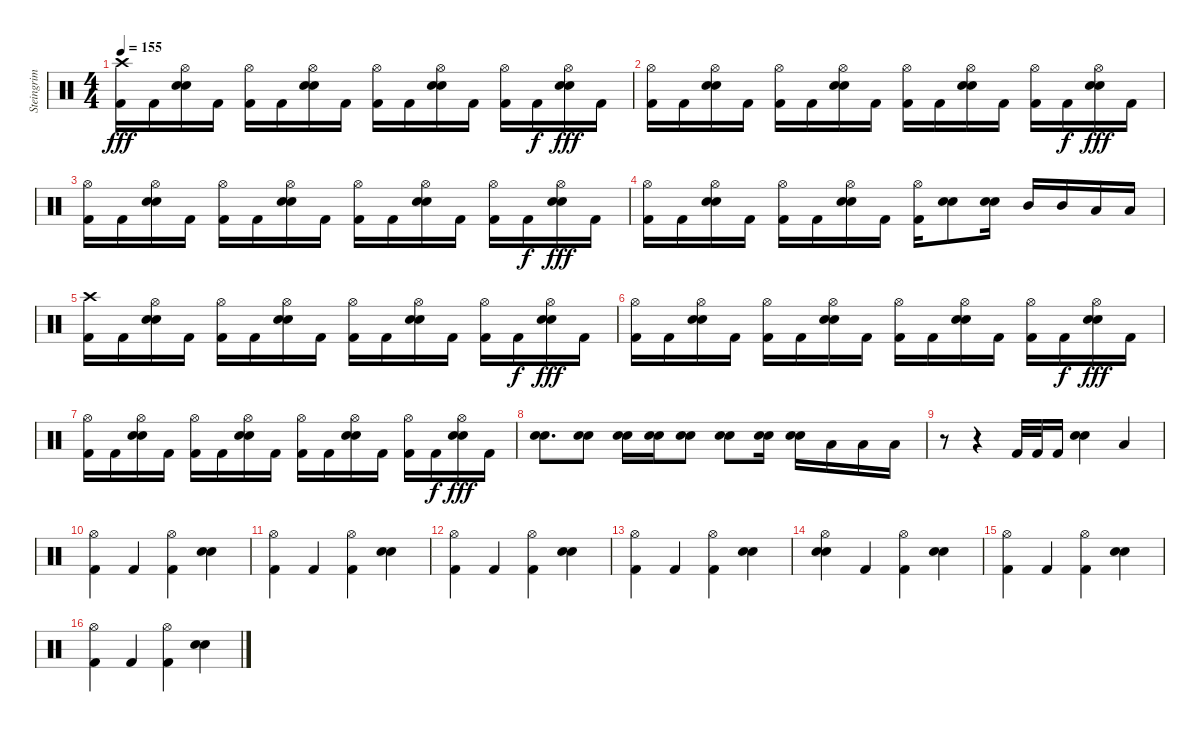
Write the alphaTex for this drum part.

\track ("Steingrim" "Steingrim") {instrument percussion}
\staff {score}
\articulation defaults
\ts (4 4)
\tempo 155
\clef neutral
\ks c
("Kick (hit) 2" "Crash high (hit)").16{dy fff} "Kick (hit) 2".16 ("Snare (hit) 2" "Electric Snare (hit)" "Hi-Hat (open)").16 "Kick (hit) 2".16 ("Kick (hit) 2" "Hi-Hat (open)").16 "Kick (hit) 2".16 ("Snare (hit) 2" "Electric Snare (hit)" "Hi-Hat (open)").16 "Kick (hit) 2".16 ("Kick (hit) 2" "Hi-Hat (open)").16 "Kick (hit) 2".16 ("Snare (hit) 2" "Electric Snare (hit)" "Hi-Hat (open)").16 "Kick (hit) 2".16 ("Kick (hit) 2" "Hi-Hat (open)").16 "Kick (hit) 2".16{dy f} ("Snare (hit) 2" "Electric Snare (hit)" "Hi-Hat (open)").16{dy fff} "Kick (hit) 2".16 |
("Kick (hit) 2" "Hi-Hat (open)").16 "Kick (hit) 2".16 ("Snare (hit) 2" "Electric Snare (hit)" "Hi-Hat (open)").16 "Kick (hit) 2".16 ("Kick (hit) 2" "Hi-Hat (open)").16 "Kick (hit) 2".16 ("Snare (hit) 2" "Electric Snare (hit)" "Hi-Hat (open)").16 "Kick (hit) 2".16 ("Kick (hit) 2" "Hi-Hat (open)").16 "Kick (hit) 2".16 ("Snare (hit) 2" "Electric Snare (hit)" "Hi-Hat (open)").16 "Kick (hit) 2".16 ("Kick (hit) 2" "Hi-Hat (open)").16 "Kick (hit) 2".16{dy f} ("Snare (hit) 2" "Electric Snare (hit)" "Hi-Hat (open)").16{dy fff} "Kick (hit) 2".16 |
("Kick (hit) 2" "Hi-Hat (open)").16 "Kick (hit) 2".16 ("Snare (hit) 2" "Electric Snare (hit)" "Hi-Hat (open)").16 "Kick (hit) 2".16 ("Kick (hit) 2" "Hi-Hat (open)").16 "Kick (hit) 2".16 ("Snare (hit) 2" "Electric Snare (hit)" "Hi-Hat (open)").16 "Kick (hit) 2".16 ("Kick (hit) 2" "Hi-Hat (open)").16 "Kick (hit) 2".16 ("Snare (hit) 2" "Electric Snare (hit)" "Hi-Hat (open)").16 "Kick (hit) 2".16 ("Kick (hit) 2" "Hi-Hat (open)").16 "Kick (hit) 2".16{dy f} ("Snare (hit) 2" "Electric Snare (hit)" "Hi-Hat (open)").16{dy fff} "Kick (hit) 2".16 |
("Kick (hit) 2" "Hi-Hat (open)").16 "Kick (hit) 2".16 ("Snare (hit) 2" "Electric Snare (hit)" "Hi-Hat (open)").16 "Kick (hit) 2".16 ("Kick (hit) 2" "Hi-Hat (open)").16 "Kick (hit) 2".16 ("Snare (hit) 2" "Electric Snare (hit)" "Hi-Hat (open)").16 "Kick (hit) 2".16 ("Kick (hit) 2" "Hi-Hat (open)").16 ("Snare (hit) 2" "Electric Snare (hit)").8 ("Snare (hit) 2" "Electric Snare (hit)").16 "Mid Tom (hit)".16 "Mid Tom (hit)".16 "Low Tom (hit)".16 "Low Tom (hit)".16 |
("Kick (hit) 2" "Crash high (hit)").16 "Kick (hit) 2".16 ("Snare (hit) 2" "Electric Snare (hit)" "Hi-Hat (open)").16 "Kick (hit) 2".16 ("Kick (hit) 2" "Hi-Hat (open)").16 "Kick (hit) 2".16 ("Snare (hit) 2" "Electric Snare (hit)" "Hi-Hat (open)").16 "Kick (hit) 2".16 ("Kick (hit) 2" "Hi-Hat (open)").16 "Kick (hit) 2".16 ("Snare (hit) 2" "Electric Snare (hit)" "Hi-Hat (open)").16 "Kick (hit) 2".16 ("Kick (hit) 2" "Hi-Hat (open)").16 "Kick (hit) 2".16{dy f} ("Snare (hit) 2" "Electric Snare (hit)" "Hi-Hat (open)").16{dy fff} "Kick (hit) 2".16 |
("Kick (hit) 2" "Hi-Hat (open)").16 "Kick (hit) 2".16 ("Snare (hit) 2" "Electric Snare (hit)" "Hi-Hat (open)").16 "Kick (hit) 2".16 ("Kick (hit) 2" "Hi-Hat (open)").16 "Kick (hit) 2".16 ("Snare (hit) 2" "Electric Snare (hit)" "Hi-Hat (open)").16 "Kick (hit) 2".16 ("Kick (hit) 2" "Hi-Hat (open)").16 "Kick (hit) 2".16 ("Snare (hit) 2" "Electric Snare (hit)" "Hi-Hat (open)").16 "Kick (hit) 2".16 ("Kick (hit) 2" "Hi-Hat (open)").16 "Kick (hit) 2".16{dy f} ("Snare (hit) 2" "Electric Snare (hit)" "Hi-Hat (open)").16{dy fff} "Kick (hit) 2".16 |
("Kick (hit) 2" "Hi-Hat (open)").16 "Kick (hit) 2".16 ("Snare (hit) 2" "Electric Snare (hit)" "Hi-Hat (open)").16 "Kick (hit) 2".16 ("Kick (hit) 2" "Hi-Hat (open)").16 "Kick (hit) 2".16 ("Snare (hit) 2" "Electric Snare (hit)" "Hi-Hat (open)").16 "Kick (hit) 2".16 ("Kick (hit) 2" "Hi-Hat (open)").16 "Kick (hit) 2".16 ("Snare (hit) 2" "Electric Snare (hit)" "Hi-Hat (open)").16 "Kick (hit) 2".16 ("Kick (hit) 2" "Hi-Hat (open)").16 "Kick (hit) 2".16{dy f} ("Snare (hit) 2" "Electric Snare (hit)" "Hi-Hat (open)").16{dy fff} "Kick (hit) 2".16 |
("Snare (hit) 2" "Electric Snare (hit)").8{d} ("Snare (hit) 2" "Electric Snare (hit)").8 ("Snare (hit) 2" "Electric Snare (hit)").16 ("Snare (hit) 2" "Electric Snare (hit)").16 ("Snare (hit) 2" "Electric Snare (hit)").8 ("Snare (hit) 2" "Electric Snare (hit)").8 ("Snare (hit) 2" "Electric Snare (hit)").16 ("Snare (hit) 2" "Electric Snare (hit)").16 "Low Tom (hit)".16 "Low Tom (hit)".16 "Low Tom (hit)".16 |
r.8 r.4 "Kick (hit) 2".32 "Kick (hit) 2".32 "Kick (hit) 2".16 ("Snare (hit) 2" "Electric Snare (hit)").4 "Low Tom (hit)".4 |
("Hi-Hat (open)" "Kick (hit) 2").4 "Kick (hit) 2".4 ("Hi-Hat (open)" "Kick (hit) 2").4 ("Snare (hit) 2" "Electric Snare (hit)").4 |
("Hi-Hat (open)" "Kick (hit) 2").4 "Kick (hit) 2".4 ("Hi-Hat (open)" "Kick (hit) 2").4 ("Snare (hit) 2" "Electric Snare (hit)").4 |
("Hi-Hat (open)" "Kick (hit) 2").4 "Kick (hit) 2".4 ("Hi-Hat (open)" "Kick (hit) 2").4 ("Snare (hit) 2" "Electric Snare (hit)").4 |
("Hi-Hat (open)" "Kick (hit) 2").4 "Kick (hit) 2".4 ("Hi-Hat (open)" "Kick (hit) 2").4 ("Snare (hit) 2" "Electric Snare (hit)").4 |
("Hi-Hat (open)" "Electric Snare (hit)" "Snare (hit) 2").4 "Kick (hit) 2".4 ("Hi-Hat (open)" "Kick (hit) 2").4 ("Snare (hit) 2" "Electric Snare (hit)").4 |
("Hi-Hat (open)" "Kick (hit) 2").4 "Kick (hit) 2".4 ("Hi-Hat (open)" "Kick (hit) 2").4 ("Snare (hit) 2" "Electric Snare (hit)").4 |
("Hi-Hat (open)" "Kick (hit) 2").4 "Kick (hit) 2".4 ("Hi-Hat (open)" "Kick (hit) 2").4 ("Snare (hit) 2" "Electric Snare (hit)").4
